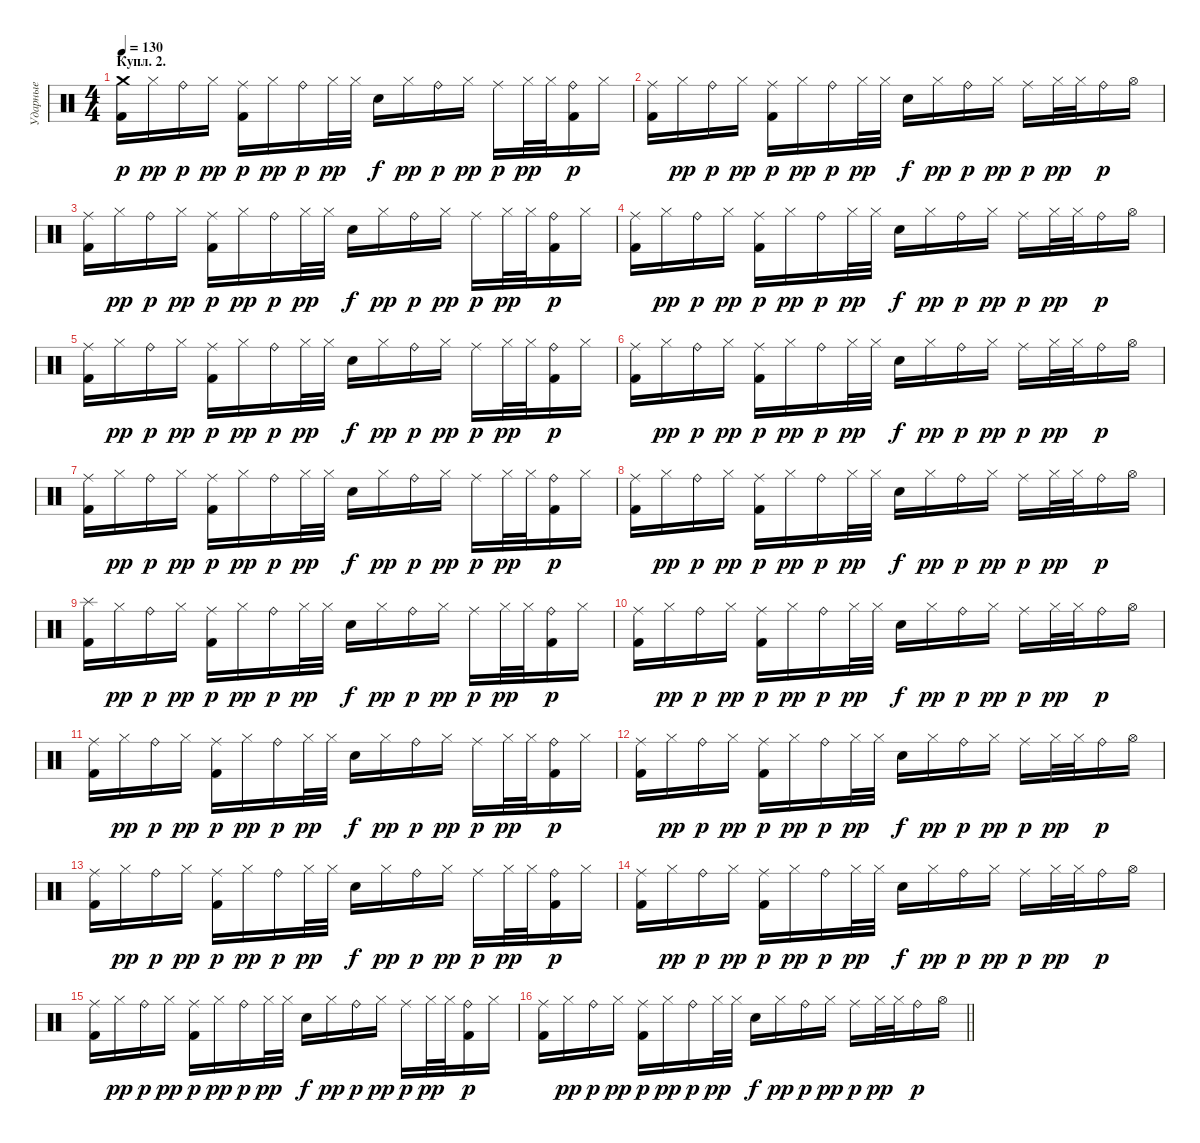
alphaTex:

\track ("Ударные" "Ударные") {instrument percussion}
\staff {score}
\articulation defaults
\ts (4 4)
\section ("" "Купл. 2.")
\tempo 130
\clef neutral
\ks c
("Crash medium (hit)" "Kick (hit) 2").16{dy p} "Hi-Hat (closed)".16{dy pp} "Ride (bell)".16{dy p} "Hi-Hat (closed)".16{dy pp} ("Ride (middle)" "Kick (hit) 2").16{dy p} "Hi-Hat (closed)".16{dy pp} "Ride (bell)".16{dy p} "Hi-Hat (closed)".32{dy pp} "Hi-Hat (closed)".32 "Snare (hit) 2".16{dy f} "Hi-Hat (closed)".16{dy pp} "Ride (bell)".16{dy p} "Hi-Hat (closed)".16{dy pp} "Ride (middle)".16{dy p} "Hi-Hat (closed)".32{dy pp} "Hi-Hat (closed)".32 ("Ride (bell)" "Kick (hit) 2").16{dy p} "Hi-Hat (closed)".16 |
("Ride (middle)" "Kick (hit) 2").16 "Hi-Hat (closed)".16{dy pp} "Ride (bell)".16{dy p} "Hi-Hat (closed)".16{dy pp} ("Ride (middle)" "Kick (hit) 2").16{dy p} "Hi-Hat (closed)".16{dy pp} "Ride (bell)".16{dy p} "Hi-Hat (closed)".32{dy pp} "Hi-Hat (closed)".32 "Snare (hit) 2".16{dy f} "Hi-Hat (closed)".16{dy pp} "Ride (bell)".16{dy p} "Hi-Hat (closed)".16{dy pp} "Ride (middle)".16{dy p} "Hi-Hat (closed)".32{dy pp} "Hi-Hat (closed)".32 "Ride (bell)".16{dy p} "Hi-Hat (open)".16 |
("Ride (middle)" "Kick (hit) 2").16 "Hi-Hat (closed)".16{dy pp} "Ride (bell)".16{dy p} "Hi-Hat (closed)".16{dy pp} ("Ride (middle)" "Kick (hit) 2").16{dy p} "Hi-Hat (closed)".16{dy pp} "Ride (bell)".16{dy p} "Hi-Hat (closed)".32{dy pp} "Hi-Hat (closed)".32 "Snare (hit) 2".16{dy f} "Hi-Hat (closed)".16{dy pp} "Ride (bell)".16{dy p} "Hi-Hat (closed)".16{dy pp} "Ride (middle)".16{dy p} "Hi-Hat (closed)".32{dy pp} "Hi-Hat (closed)".32 ("Ride (bell)" "Kick (hit) 2").16{dy p} "Hi-Hat (closed)".16 |
("Ride (middle)" "Kick (hit) 2").16 "Hi-Hat (closed)".16{dy pp} "Ride (bell)".16{dy p} "Hi-Hat (closed)".16{dy pp} ("Ride (middle)" "Kick (hit) 2").16{dy p} "Hi-Hat (closed)".16{dy pp} "Ride (bell)".16{dy p} "Hi-Hat (closed)".32{dy pp} "Hi-Hat (closed)".32 "Snare (hit) 2".16{dy f} "Hi-Hat (closed)".16{dy pp} "Ride (bell)".16{dy p} "Hi-Hat (closed)".16{dy pp} "Ride (middle)".16{dy p} "Hi-Hat (closed)".32{dy pp} "Hi-Hat (closed)".32 "Ride (bell)".16{dy p} "Hi-Hat (open)".16 |
("Ride (middle)" "Kick (hit) 2").16 "Hi-Hat (closed)".16{dy pp} "Ride (bell)".16{dy p} "Hi-Hat (closed)".16{dy pp} ("Ride (middle)" "Kick (hit) 2").16{dy p} "Hi-Hat (closed)".16{dy pp} "Ride (bell)".16{dy p} "Hi-Hat (closed)".32{dy pp} "Hi-Hat (closed)".32 "Snare (hit) 2".16{dy f} "Hi-Hat (closed)".16{dy pp} "Ride (bell)".16{dy p} "Hi-Hat (closed)".16{dy pp} "Ride (middle)".16{dy p} "Hi-Hat (closed)".32{dy pp} "Hi-Hat (closed)".32 ("Ride (bell)" "Kick (hit) 2").16{dy p} "Hi-Hat (closed)".16 |
("Ride (middle)" "Kick (hit) 2").16 "Hi-Hat (closed)".16{dy pp} "Ride (bell)".16{dy p} "Hi-Hat (closed)".16{dy pp} ("Ride (middle)" "Kick (hit) 2").16{dy p} "Hi-Hat (closed)".16{dy pp} "Ride (bell)".16{dy p} "Hi-Hat (closed)".32{dy pp} "Hi-Hat (closed)".32 "Snare (hit) 2".16{dy f} "Hi-Hat (closed)".16{dy pp} "Ride (bell)".16{dy p} "Hi-Hat (closed)".16{dy pp} "Ride (middle)".16{dy p} "Hi-Hat (closed)".32{dy pp} "Hi-Hat (closed)".32 "Ride (bell)".16{dy p} "Hi-Hat (open)".16 |
("Ride (middle)" "Kick (hit) 2").16 "Hi-Hat (closed)".16{dy pp} "Ride (bell)".16{dy p} "Hi-Hat (closed)".16{dy pp} ("Ride (middle)" "Kick (hit) 2").16{dy p} "Hi-Hat (closed)".16{dy pp} "Ride (bell)".16{dy p} "Hi-Hat (closed)".32{dy pp} "Hi-Hat (closed)".32 "Snare (hit) 2".16{dy f} "Hi-Hat (closed)".16{dy pp} "Ride (bell)".16{dy p} "Hi-Hat (closed)".16{dy pp} "Ride (middle)".16{dy p} "Hi-Hat (closed)".32{dy pp} "Hi-Hat (closed)".32 ("Ride (bell)" "Kick (hit) 2").16{dy p} "Hi-Hat (closed)".16 |
("Ride (middle)" "Kick (hit) 2").16 "Hi-Hat (closed)".16{dy pp} "Ride (bell)".16{dy p} "Hi-Hat (closed)".16{dy pp} ("Ride (middle)" "Kick (hit) 2").16{dy p} "Hi-Hat (closed)".16{dy pp} "Ride (bell)".16{dy p} "Hi-Hat (closed)".32{dy pp} "Hi-Hat (closed)".32 "Snare (hit) 2".16{dy f} "Hi-Hat (closed)".16{dy pp} "Ride (bell)".16{dy p} "Hi-Hat (closed)".16{dy pp} "Ride (middle)".16{dy p} "Hi-Hat (closed)".32{dy pp} "Hi-Hat (closed)".32 "Ride (bell)".16{dy p} "Hi-Hat (open)".16 |
("Splash (hit)" "Kick (hit) 2").16 "Hi-Hat (closed)".16{dy pp} "Ride (bell)".16{dy p} "Hi-Hat (closed)".16{dy pp} ("Ride (middle)" "Kick (hit) 2").16{dy p} "Hi-Hat (closed)".16{dy pp} "Ride (bell)".16{dy p} "Hi-Hat (closed)".32{dy pp} "Hi-Hat (closed)".32 "Snare (hit) 2".16{dy f} "Hi-Hat (closed)".16{dy pp} "Ride (bell)".16{dy p} "Hi-Hat (closed)".16{dy pp} "Ride (middle)".16{dy p} "Hi-Hat (closed)".32{dy pp} "Hi-Hat (closed)".32 ("Ride (bell)" "Kick (hit) 2").16{dy p} "Hi-Hat (closed)".16 |
("Ride (middle)" "Kick (hit) 2").16 "Hi-Hat (closed)".16{dy pp} "Ride (bell)".16{dy p} "Hi-Hat (closed)".16{dy pp} ("Ride (middle)" "Kick (hit) 2").16{dy p} "Hi-Hat (closed)".16{dy pp} "Ride (bell)".16{dy p} "Hi-Hat (closed)".32{dy pp} "Hi-Hat (closed)".32 "Snare (hit) 2".16{dy f} "Hi-Hat (closed)".16{dy pp} "Ride (bell)".16{dy p} "Hi-Hat (closed)".16{dy pp} "Ride (middle)".16{dy p} "Hi-Hat (closed)".32{dy pp} "Hi-Hat (closed)".32 "Ride (bell)".16{dy p} "Hi-Hat (open)".16 |
("Ride (middle)" "Kick (hit) 2").16 "Hi-Hat (closed)".16{dy pp} "Ride (bell)".16{dy p} "Hi-Hat (closed)".16{dy pp} ("Ride (middle)" "Kick (hit) 2").16{dy p} "Hi-Hat (closed)".16{dy pp} "Ride (bell)".16{dy p} "Hi-Hat (closed)".32{dy pp} "Hi-Hat (closed)".32 "Snare (hit) 2".16{dy f} "Hi-Hat (closed)".16{dy pp} "Ride (bell)".16{dy p} "Hi-Hat (closed)".16{dy pp} "Ride (middle)".16{dy p} "Hi-Hat (closed)".32{dy pp} "Hi-Hat (closed)".32 ("Ride (bell)" "Kick (hit) 2").16{dy p} "Hi-Hat (closed)".16 |
("Ride (middle)" "Kick (hit) 2").16 "Hi-Hat (closed)".16{dy pp} "Ride (bell)".16{dy p} "Hi-Hat (closed)".16{dy pp} ("Ride (middle)" "Kick (hit) 2").16{dy p} "Hi-Hat (closed)".16{dy pp} "Ride (bell)".16{dy p} "Hi-Hat (closed)".32{dy pp} "Hi-Hat (closed)".32 "Snare (hit) 2".16{dy f} "Hi-Hat (closed)".16{dy pp} "Ride (bell)".16{dy p} "Hi-Hat (closed)".16{dy pp} "Ride (middle)".16{dy p} "Hi-Hat (closed)".32{dy pp} "Hi-Hat (closed)".32 "Ride (bell)".16{dy p} "Hi-Hat (open)".16 |
("Ride (middle)" "Kick (hit) 2").16 "Hi-Hat (closed)".16{dy pp} "Ride (bell)".16{dy p} "Hi-Hat (closed)".16{dy pp} ("Ride (middle)" "Kick (hit) 2").16{dy p} "Hi-Hat (closed)".16{dy pp} "Ride (bell)".16{dy p} "Hi-Hat (closed)".32{dy pp} "Hi-Hat (closed)".32 "Snare (hit) 2".16{dy f} "Hi-Hat (closed)".16{dy pp} "Ride (bell)".16{dy p} "Hi-Hat (closed)".16{dy pp} "Ride (middle)".16{dy p} "Hi-Hat (closed)".32{dy pp} "Hi-Hat (closed)".32 ("Ride (bell)" "Kick (hit) 2").16{dy p} "Hi-Hat (closed)".16 |
("Ride (middle)" "Kick (hit) 2").16 "Hi-Hat (closed)".16{dy pp} "Ride (bell)".16{dy p} "Hi-Hat (closed)".16{dy pp} ("Ride (middle)" "Kick (hit) 2").16{dy p} "Hi-Hat (closed)".16{dy pp} "Ride (bell)".16{dy p} "Hi-Hat (closed)".32{dy pp} "Hi-Hat (closed)".32 "Snare (hit) 2".16{dy f} "Hi-Hat (closed)".16{dy pp} "Ride (bell)".16{dy p} "Hi-Hat (closed)".16{dy pp} "Ride (middle)".16{dy p} "Hi-Hat (closed)".32{dy pp} "Hi-Hat (closed)".32 "Ride (bell)".16{dy p} "Hi-Hat (open)".16 |
("Ride (middle)" "Kick (hit) 2").16 "Hi-Hat (closed)".16{dy pp} "Ride (bell)".16{dy p} "Hi-Hat (closed)".16{dy pp} ("Ride (middle)" "Kick (hit) 2").16{dy p} "Hi-Hat (closed)".16{dy pp} "Ride (bell)".16{dy p} "Hi-Hat (closed)".32{dy pp} "Hi-Hat (closed)".32 "Snare (hit) 2".16{dy f} "Hi-Hat (closed)".16{dy pp} "Ride (bell)".16{dy p} "Hi-Hat (closed)".16{dy pp} "Ride (middle)".16{dy p} "Hi-Hat (closed)".32{dy pp} "Hi-Hat (closed)".32 ("Ride (bell)" "Kick (hit) 2").16{dy p} "Hi-Hat (closed)".16 |
\barLineRight lightlight
("Ride (middle)" "Kick (hit) 2").16 "Hi-Hat (closed)".16{dy pp} "Ride (bell)".16{dy p} "Hi-Hat (closed)".16{dy pp} ("Ride (middle)" "Kick (hit) 2").16{dy p} "Hi-Hat (closed)".16{dy pp} "Ride (bell)".16{dy p} "Hi-Hat (closed)".32{dy pp} "Hi-Hat (closed)".32 "Snare (hit) 2".16{dy f} "Hi-Hat (closed)".16{dy pp} "Ride (bell)".16{dy p} "Hi-Hat (closed)".16{dy pp} "Ride (middle)".16{dy p} "Hi-Hat (closed)".32{dy pp} "Hi-Hat (closed)".32 "Ride (bell)".16{dy p} "Hi-Hat (open)".16
